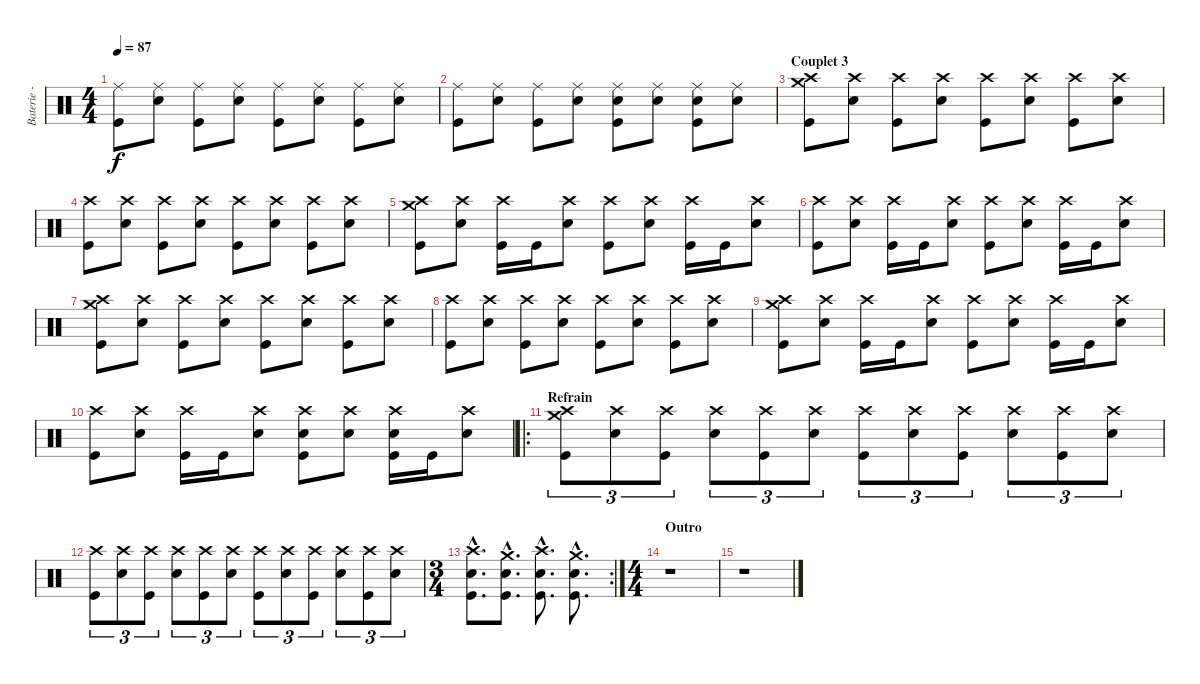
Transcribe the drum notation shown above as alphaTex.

\track ("Baterie - Alex" "Baterie - ") {instrument percussion}
\staff {score}
\articulation defaults
\ts (4 4)
\tempo 87
\clef neutral
\ks c
("Ride (middle)" "Kick (hit)").8{dy f} ("Ride (middle)" "Electric Snare (hit)").8 ("Ride (middle)" "Kick (hit)").8 ("Ride (middle)" "Electric Snare (hit)").8 ("Ride (middle)" "Kick (hit)").8 ("Ride (middle)" "Electric Snare (hit)").8 ("Ride (middle)" "Kick (hit)").8 ("Ride (middle)" "Electric Snare (hit)").8 |
("Ride (middle)" "Kick (hit)").8 ("Ride (middle)" "Electric Snare (hit)").8 ("Ride (middle)" "Kick (hit)").8 ("Ride (middle)" "Electric Snare (hit)").8 ("Ride (middle)" "Electric Snare (hit)" "Kick (hit)").8 ("Ride (middle)" "Electric Snare (hit)").8 ("Ride (middle)" "Electric Snare (hit)" "Kick (hit)").8 ("Ride (middle)" "Electric Snare (hit)").8 |
\section ("" "Couplet 3")
("Crash high (hit)" "Crash medium (hit)" "Kick (hit)").8 ("Crash high (hit)" "Electric Snare (hit)").8 ("Crash high (hit)" "Kick (hit)").8 ("Crash high (hit)" "Electric Snare (hit)").8 ("Crash high (hit)" "Kick (hit)").8 ("Crash high (hit)" "Electric Snare (hit)").8 ("Crash high (hit)" "Kick (hit)").8 ("Crash high (hit)" "Electric Snare (hit)").8 |
("Crash high (hit)" "Kick (hit)").8 ("Crash high (hit)" "Electric Snare (hit)").8 ("Crash high (hit)" "Kick (hit)").8 ("Crash high (hit)" "Electric Snare (hit)").8 ("Crash high (hit)" "Kick (hit)").8 ("Crash high (hit)" "Electric Snare (hit)").8 ("Crash high (hit)" "Kick (hit)").8 ("Crash high (hit)" "Electric Snare (hit)").8 |
("Crash high (hit)" "Crash medium (hit)" "Kick (hit)").8 ("Crash high (hit)" "Electric Snare (hit)").8 ("Crash high (hit)" "Kick (hit)").16 "Kick (hit)".16 ("Crash high (hit)" "Electric Snare (hit)").8 ("Crash high (hit)" "Kick (hit)").8 ("Crash high (hit)" "Electric Snare (hit)").8 ("Crash high (hit)" "Kick (hit)").16 "Kick (hit)".16 ("Crash high (hit)" "Electric Snare (hit)").8 |
("Crash high (hit)" "Kick (hit)").8 ("Crash high (hit)" "Electric Snare (hit)").8 ("Crash high (hit)" "Kick (hit)").16 "Kick (hit)".16 ("Crash high (hit)" "Electric Snare (hit)").8 ("Crash high (hit)" "Kick (hit)").8 ("Crash high (hit)" "Electric Snare (hit)").8 ("Crash high (hit)" "Kick (hit)").16 "Kick (hit)".16 ("Crash high (hit)" "Electric Snare (hit)").8 |
("Crash high (hit)" "Crash medium (hit)" "Kick (hit)").8 ("Crash high (hit)" "Electric Snare (hit)").8 ("Crash high (hit)" "Kick (hit)").8 ("Crash high (hit)" "Electric Snare (hit)").8 ("Crash high (hit)" "Kick (hit)").8 ("Crash high (hit)" "Electric Snare (hit)").8 ("Crash high (hit)" "Kick (hit)").8 ("Crash high (hit)" "Electric Snare (hit)").8 |
("Crash high (hit)" "Kick (hit)").8 ("Crash high (hit)" "Electric Snare (hit)").8 ("Crash high (hit)" "Kick (hit)").8 ("Crash high (hit)" "Electric Snare (hit)").8 ("Crash high (hit)" "Kick (hit)").8 ("Crash high (hit)" "Electric Snare (hit)").8 ("Crash high (hit)" "Kick (hit)").8 ("Crash high (hit)" "Electric Snare (hit)").8 |
("Crash high (hit)" "Crash medium (hit)" "Kick (hit)").8 ("Crash high (hit)" "Electric Snare (hit)").8 ("Crash high (hit)" "Kick (hit)").16 "Kick (hit)".16 ("Crash high (hit)" "Electric Snare (hit)").8 ("Crash high (hit)" "Kick (hit)").8 ("Crash high (hit)" "Electric Snare (hit)").8 ("Crash high (hit)" "Kick (hit)").16 "Kick (hit)".16 ("Crash high (hit)" "Electric Snare (hit)").8 |
("Crash high (hit)" "Kick (hit)").8 ("Crash high (hit)" "Electric Snare (hit)").8 ("Crash high (hit)" "Kick (hit)").16 "Kick (hit)".16 ("Crash high (hit)" "Electric Snare (hit)").8 ("Crash high (hit)" "Electric Snare (hit)" "Kick (hit)").8 ("Crash high (hit)" "Electric Snare (hit)").8 ("Crash high (hit)" "Electric Snare (hit)" "Kick (hit)").16 "Kick (hit)".16 ("Crash high (hit)" "Electric Snare (hit)").8 |
\ro
\section ("" "Refrain")
("Crash high (hit)" "Crash medium (hit)" "Kick (hit)").8{tu (3 2)} ("Crash high (hit)" "Electric Snare (hit)").8{tu (3 2)} ("Crash high (hit)" "Kick (hit)").8{tu (3 2)} ("Crash high (hit)" "Electric Snare (hit)").8{tu (3 2)} ("Crash high (hit)" "Kick (hit)").8{tu (3 2)} ("Crash high (hit)" "Electric Snare (hit)").8{tu (3 2)} ("Crash high (hit)" "Kick (hit)").8{tu (3 2)} ("Crash high (hit)" "Electric Snare (hit)").8{tu (3 2)} ("Crash high (hit)" "Kick (hit)").8{tu (3 2)} ("Crash high (hit)" "Electric Snare (hit)").8{tu (3 2)} ("Crash high (hit)" "Kick (hit)").8{tu (3 2)} ("Crash high (hit)" "Electric Snare (hit)").8{tu (3 2)} |
("Crash high (hit)" "Kick (hit)").8{tu (3 2)} ("Crash high (hit)" "Electric Snare (hit)").8{tu (3 2)} ("Crash high (hit)" "Kick (hit)").8{tu (3 2)} ("Crash high (hit)" "Electric Snare (hit)").8{tu (3 2)} ("Crash high (hit)" "Kick (hit)").8{tu (3 2)} ("Crash high (hit)" "Electric Snare (hit)").8{tu (3 2)} ("Crash high (hit)" "Kick (hit)").8{tu (3 2)} ("Crash high (hit)" "Electric Snare (hit)").8{tu (3 2)} ("Crash high (hit)" "Kick (hit)").8{tu (3 2)} ("Crash high (hit)" "Electric Snare (hit)").8{tu (3 2)} ("Crash high (hit)" "Kick (hit)").8{tu (3 2)} ("Crash high (hit)" "Electric Snare (hit)").8{tu (3 2)} |
\rc 2
\ts (3 4)
("Crash high (hit)"{hac} "Electric Snare (hit)"{hac} "Kick (hit)"{hac}).8{d} ("Crash medium (hit)"{hac} "Electric Snare (hit)"{hac} "Kick (hit)"{hac}).8{d} ("Crash high (hit)"{hac} "Electric Snare (hit)"{hac} "Kick (hit)"{hac}).8{d} ("Crash medium (hit)"{hac} "Electric Snare (hit)"{hac} "Kick (hit)"{hac}).8{d} |
\ts (4 4)
\section ("" "Outro")
r.1 |
r.1
